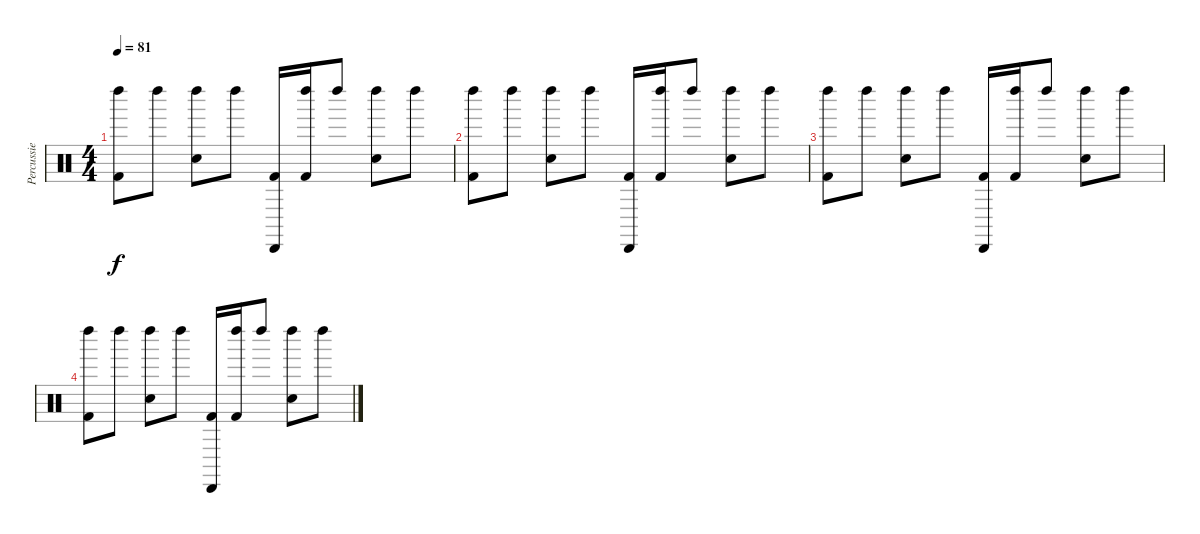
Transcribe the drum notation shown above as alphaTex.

\track ("Percussie" "Percussie") {instrument percussion}
\staff {score}
\articulation defaults
\ts (4 4)
\tempo 81
\clef neutral
\ks c
("Left Maraca (hit)" "Kick (hit) 2").8{dy f} "Left Maraca (hit)".8 ("Left Maraca (hit)" "Electric Snare (hit)").8 "Left Maraca (hit)".8 ("Cabasa (hit)" "Kick (hit) 2").16 ("Left Maraca (hit)" "Kick (hit) 2").16 "Left Maraca (hit)".8 ("Left Maraca (hit)" "Electric Snare (hit)").8 "Left Maraca (hit)".8 |
("Left Maraca (hit)" "Kick (hit) 2").8 "Left Maraca (hit)".8 ("Left Maraca (hit)" "Electric Snare (hit)").8 "Left Maraca (hit)".8 ("Cabasa (hit)" "Kick (hit) 2").16 ("Left Maraca (hit)" "Kick (hit) 2").16 "Left Maraca (hit)".8 ("Left Maraca (hit)" "Electric Snare (hit)").8 "Left Maraca (hit)".8 |
("Left Maraca (hit)" "Kick (hit) 2").8 "Left Maraca (hit)".8 ("Left Maraca (hit)" "Electric Snare (hit)").8 "Left Maraca (hit)".8 ("Cabasa (hit)" "Kick (hit) 2").16 ("Left Maraca (hit)" "Kick (hit) 2").16 "Left Maraca (hit)".8 ("Left Maraca (hit)" "Electric Snare (hit)").8 "Left Maraca (hit)".8 |
("Left Maraca (hit)" "Kick (hit) 2").8 "Left Maraca (hit)".8 ("Left Maraca (hit)" "Electric Snare (hit)").8 "Left Maraca (hit)".8 ("Cabasa (hit)" "Kick (hit) 2").16 ("Left Maraca (hit)" "Kick (hit) 2").16 "Left Maraca (hit)".8 ("Left Maraca (hit)" "Electric Snare (hit)").8 "Left Maraca (hit)".8
